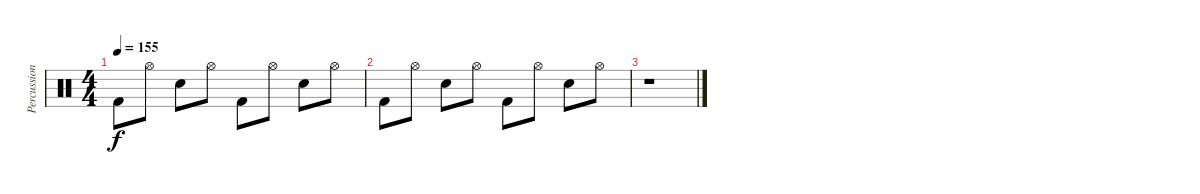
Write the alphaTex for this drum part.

\track ("Percussioni" "Percussion") {instrument percussion}
\staff {score}
\articulation defaults
\ts (4 4)
\tempo 155
\clef neutral
\ks c "Kick (hit) 2".8{dy f} "Hi-Hat (open)".8 "Snare (hit) 2".8 "Hi-Hat (open)".8 "Kick (hit) 2".8 "Hi-Hat (open)".8 "Snare (hit) 2".8 "Hi-Hat (open)".8
|
"Kick (hit) 2".8 "Hi-Hat (open)".8 "Snare (hit) 2".8 "Hi-Hat (open)".8 "Kick (hit) 2".8 "Hi-Hat (open)".8 "Snare (hit) 2".8 "Hi-Hat (open)".8 |
r.1
